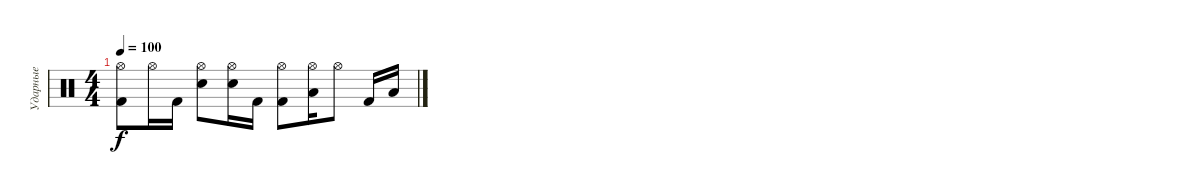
\track ("Ударные" "Ударные") {instrument percussion}
\staff {score}
\articulation defaults
\ts (4 4)
\tempo 100
\clef neutral
\ks c
("Hi-Hat (open)" "Kick (hit) 2").8{dy f} "Hi-Hat (open)".16 "Kick (hit) 2".16 ("Hi-Hat (open)" "Electric Snare (hit)").8 ("Hi-Hat (open)" "Electric Snare (hit)").16 "Kick (hit) 2".16 ("Hi-Hat (open)" "Kick (hit) 2").8 ("Hi-Hat (open)" "Low Tom (hit)").16 "Hi-Hat (open)".8 "Kick (hit) 2".16 "Low Tom (hit)".16
